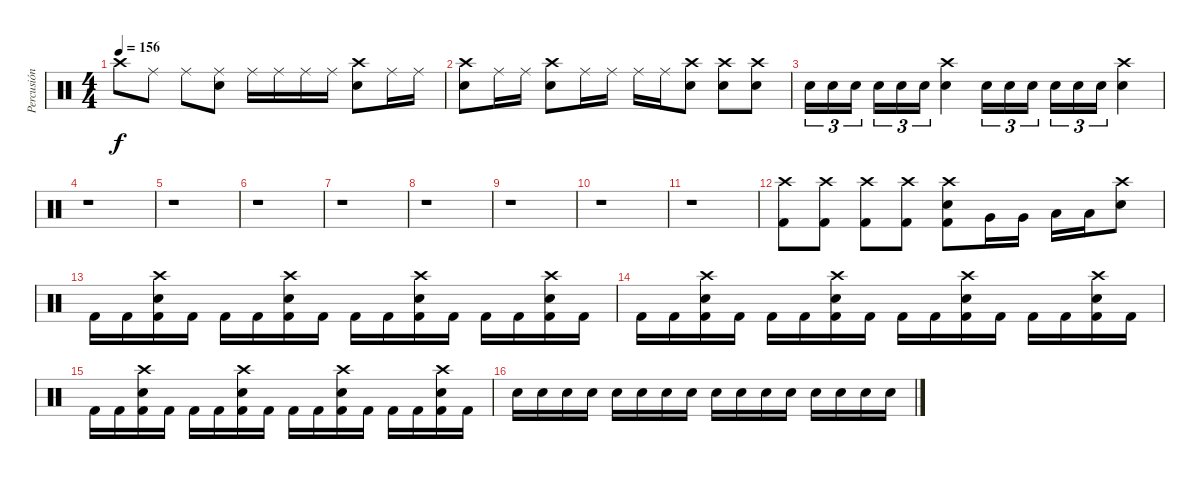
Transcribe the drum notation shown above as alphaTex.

\track ("Percusión" "Percusión") {instrument percussion}
\staff {score}
\articulation defaults
\ts (4 4)
\tempo 156
\clef neutral
\ks c "Crash high (hit)".8{dy f} "Ride (middle)".8 "Ride (middle)".8
("Ride (middle)" "Electric Snare (hit)").8 "Ride (middle)".16 "Ride (middle)".16 "Ride (middle)".16 "Ride (middle)".16 ("Crash high (hit)" "Electric Snare (hit)").8 "Ride (middle)".16 "Ride (middle)".16 |
("Crash high (hit)" "Electric Snare (hit)").8 "Ride (middle)".16 "Ride (middle)".16 ("Crash high (hit)" "Electric Snare (hit)").8 "Ride (middle)".16 "Ride (middle)".16 "Ride (middle)".16 "Ride (middle)".16 ("Crash high (hit)" "Electric Snare (hit)").8 ("Crash high (hit)" "Electric Snare (hit)").8 ("Crash high (hit)" "Electric Snare (hit)").8 |
"Electric Snare (hit)".16{tu (3 2)} "Electric Snare (hit)".16{tu (3 2)} "Electric Snare (hit)".16{tu (3 2)} "Electric Snare (hit)".16{tu (3 2)} "Electric Snare (hit)".16{tu (3 2)} "Electric Snare (hit)".16{tu (3 2)} ("Crash high (hit)" "Electric Snare (hit)").4 "Electric Snare (hit)".16{tu (3 2)} "Electric Snare (hit)".16{tu (3 2)} "Electric Snare (hit)".16{tu (3 2)} "Electric Snare (hit)".16{tu (3 2)} "Electric Snare (hit)".16{tu (3 2)} "Electric Snare (hit)".16{tu (3 2)} ("Crash high (hit)" "Electric Snare (hit)").4 |
r.1 |
r.1 |
r.1 |
r.1 |
r.1 |
r.1 |
r.1 |
r.1 |
("Crash high (hit)" "Kick (hit) 2").8 ("Crash high (hit)" "Kick (hit) 2").8 ("Crash high (hit)" "Kick (hit) 2").8 ("Crash high (hit)" "Kick (hit) 2").8 ("Crash high (hit)" "Electric Snare (hit)" "Kick (hit) 2").8 "Very Low Tom (hit)".16 "Very Low Tom (hit)".16 "Low Floor Tom (hit)".16 "Low Floor Tom (hit)".16 ("Crash high (hit)" "Electric Snare (hit)").8 |
"Kick (hit) 2".16 "Kick (hit) 2".16 ("Crash high (hit)" "Electric Snare (hit)" "Kick (hit) 2").16 "Kick (hit) 2".16 "Kick (hit) 2".16 "Kick (hit) 2".16 ("Crash high (hit)" "Electric Snare (hit)" "Kick (hit) 2").16 "Kick (hit) 2".16 "Kick (hit) 2".16 "Kick (hit) 2".16 ("Crash high (hit)" "Electric Snare (hit)" "Kick (hit) 2").16 "Kick (hit) 2".16 "Kick (hit) 2".16 "Kick (hit) 2".16 ("Crash high (hit)" "Electric Snare (hit)" "Kick (hit) 2").16 "Kick (hit) 2".16 |
"Kick (hit) 2".16 "Kick (hit) 2".16 ("Crash high (hit)" "Electric Snare (hit)" "Kick (hit) 2").16 "Kick (hit) 2".16 "Kick (hit) 2".16 "Kick (hit) 2".16 ("Crash high (hit)" "Electric Snare (hit)" "Kick (hit) 2").16 "Kick (hit) 2".16 "Kick (hit) 2".16 "Kick (hit) 2".16 ("Crash high (hit)" "Electric Snare (hit)" "Kick (hit) 2").16 "Kick (hit) 2".16 "Kick (hit) 2".16 "Kick (hit) 2".16 ("Crash high (hit)" "Electric Snare (hit)" "Kick (hit) 2").16 "Kick (hit) 2".16 |
"Kick (hit) 2".16 "Kick (hit) 2".16 ("Crash high (hit)" "Electric Snare (hit)" "Kick (hit) 2").16 "Kick (hit) 2".16 "Kick (hit) 2".16 "Kick (hit) 2".16 ("Crash high (hit)" "Electric Snare (hit)" "Kick (hit) 2").16 "Kick (hit) 2".16 "Kick (hit) 2".16 "Kick (hit) 2".16 ("Crash high (hit)" "Electric Snare (hit)" "Kick (hit) 2").16 "Kick (hit) 2".16 "Kick (hit) 2".16 "Kick (hit) 2".16 ("Crash high (hit)" "Electric Snare (hit)" "Kick (hit) 2").16 "Kick (hit) 2".16 |
"Electric Snare (hit)".16 "Electric Snare (hit)".16 "Electric Snare (hit)".16 "Electric Snare (hit)".16 "Electric Snare (hit)".16 "Electric Snare (hit)".16 "Electric Snare (hit)".16 "Electric Snare (hit)".16 "Electric Snare (hit)".16 "Electric Snare (hit)".16 "Electric Snare (hit)".16 "Electric Snare (hit)".16 "Electric Snare (hit)".16 "Electric Snare (hit)".16 "Electric Snare (hit)".16 "Electric Snare (hit)".16
